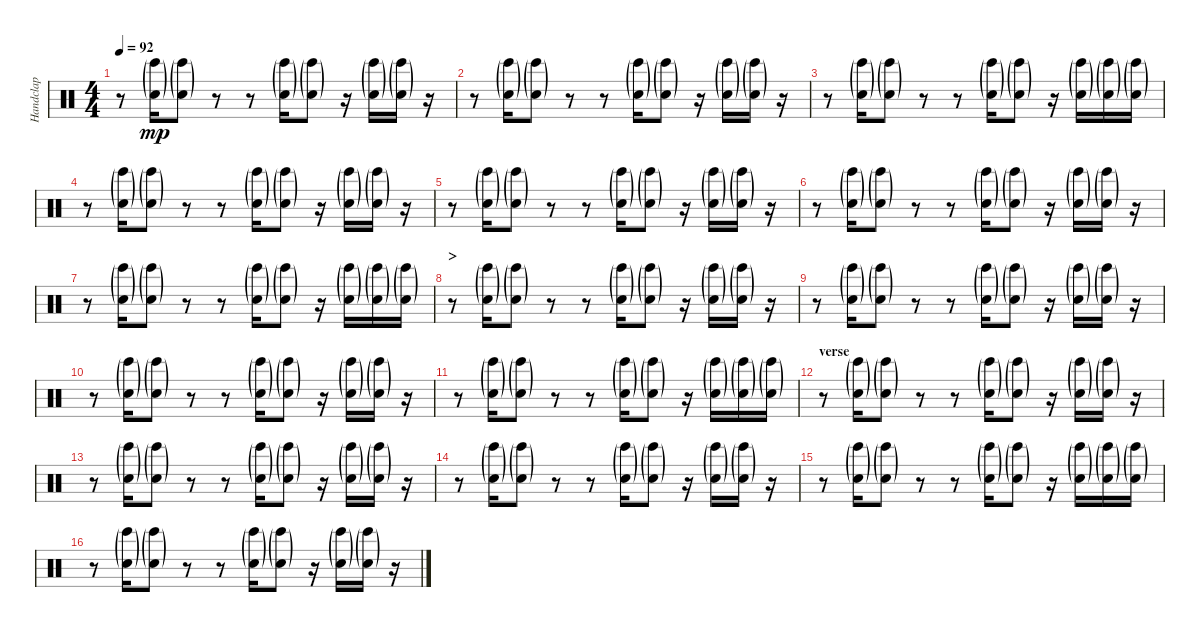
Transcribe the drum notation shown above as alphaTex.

\track ("Handclap" "Handclap") {instrument percussion}
\staff {score}
\articulation defaults
\ts (4 4)
\tempo 92
\clef neutral
\ks c
r.8{dy mp} ("Hand Clap (hit)"{g} "Bongo High (hit)"{g}).16 ("Hand Clap (hit)"{g} "Bongo High (hit)"{g}).8 r.8 r.8 ("Hand Clap (hit)"{g} "Bongo High (hit)"{g}).16 ("Hand Clap (hit)"{g} "Bongo High (hit)"{g}).8 r.16 ("Hand Clap (hit)"{g} "Bongo High (hit)"{g}).16 ("Hand Clap (hit)"{g} "Bongo High (hit)"{g}).16 r.16 |
r.8 ("Hand Clap (hit)"{g} "Bongo High (hit)"{g}).16 ("Hand Clap (hit)"{g} "Bongo High (hit)"{g}).8 r.8 r.8 ("Hand Clap (hit)"{g} "Bongo High (hit)"{g}).16 ("Hand Clap (hit)"{g} "Bongo High (hit)"{g}).8 r.16 ("Hand Clap (hit)"{g} "Bongo High (hit)"{g}).16 ("Hand Clap (hit)"{g} "Bongo High (hit)"{g}).16 r.16 |
r.8 ("Hand Clap (hit)"{g} "Bongo High (hit)"{g}).16 ("Hand Clap (hit)"{g} "Bongo High (hit)"{g}).8 r.8 r.8 ("Hand Clap (hit)"{g} "Bongo High (hit)"{g}).16 ("Hand Clap (hit)"{g} "Bongo High (hit)"{g}).8 r.16 ("Hand Clap (hit)"{g} "Bongo High (hit)"{g}).16 ("Hand Clap (hit)"{g} "Bongo High (hit)"{g}).16 ("Hand Clap (hit)"{g} "Bongo High (hit)"{g}).16 |
r.8 ("Hand Clap (hit)"{g} "Bongo High (hit)"{g}).16 ("Hand Clap (hit)"{g} "Bongo High (hit)"{g}).8 r.8 r.8 ("Hand Clap (hit)"{g} "Bongo High (hit)"{g}).16 ("Hand Clap (hit)"{g} "Bongo High (hit)"{g}).8 r.16 ("Hand Clap (hit)"{g} "Bongo High (hit)"{g}).16 ("Hand Clap (hit)"{g} "Bongo High (hit)"{g}).16 r.16 |
r.8 ("Hand Clap (hit)"{g} "Bongo High (hit)"{g}).16 ("Hand Clap (hit)"{g} "Bongo High (hit)"{g}).8 r.8 r.8 ("Hand Clap (hit)"{g} "Bongo High (hit)"{g}).16 ("Hand Clap (hit)"{g} "Bongo High (hit)"{g}).8 r.16 ("Hand Clap (hit)"{g} "Bongo High (hit)"{g}).16 ("Hand Clap (hit)"{g} "Bongo High (hit)"{g}).16 r.16 |
r.8 ("Hand Clap (hit)"{g} "Bongo High (hit)"{g}).16 ("Hand Clap (hit)"{g} "Bongo High (hit)"{g}).8 r.8 r.8 ("Hand Clap (hit)"{g} "Bongo High (hit)"{g}).16 ("Hand Clap (hit)"{g} "Bongo High (hit)"{g}).8 r.16 ("Hand Clap (hit)"{g} "Bongo High (hit)"{g}).16 ("Hand Clap (hit)"{g} "Bongo High (hit)"{g}).16 r.16 |
r.8 ("Hand Clap (hit)"{g} "Bongo High (hit)"{g}).16 ("Hand Clap (hit)"{g} "Bongo High (hit)"{g}).8 r.8 r.8 ("Hand Clap (hit)"{g} "Bongo High (hit)"{g}).16 ("Hand Clap (hit)"{g} "Bongo High (hit)"{g}).8 r.16 ("Hand Clap (hit)"{g} "Bongo High (hit)"{g}).16 ("Hand Clap (hit)"{g} "Bongo High (hit)"{g}).16 ("Hand Clap (hit)"{g} "Bongo High (hit)"{g}).16 |
\section ("" ">")
r.8 ("Hand Clap (hit)"{g} "Bongo High (hit)"{g}).16 ("Hand Clap (hit)"{g} "Bongo High (hit)"{g}).8 r.8 r.8 ("Hand Clap (hit)"{g} "Bongo High (hit)"{g}).16 ("Hand Clap (hit)"{g} "Bongo High (hit)"{g}).8 r.16 ("Hand Clap (hit)"{g} "Bongo High (hit)"{g}).16 ("Hand Clap (hit)"{g} "Bongo High (hit)"{g}).16 r.16 |
r.8 ("Hand Clap (hit)"{g} "Bongo High (hit)"{g}).16 ("Hand Clap (hit)"{g} "Bongo High (hit)"{g}).8 r.8 r.8 ("Hand Clap (hit)"{g} "Bongo High (hit)"{g}).16 ("Hand Clap (hit)"{g} "Bongo High (hit)"{g}).8 r.16 ("Hand Clap (hit)"{g} "Bongo High (hit)"{g}).16 ("Hand Clap (hit)"{g} "Bongo High (hit)"{g}).16 r.16 |
r.8 ("Hand Clap (hit)"{g} "Bongo High (hit)"{g}).16 ("Hand Clap (hit)"{g} "Bongo High (hit)"{g}).8 r.8 r.8 ("Hand Clap (hit)"{g} "Bongo High (hit)"{g}).16 ("Hand Clap (hit)"{g} "Bongo High (hit)"{g}).8 r.16 ("Hand Clap (hit)"{g} "Bongo High (hit)"{g}).16 ("Hand Clap (hit)"{g} "Bongo High (hit)"{g}).16 r.16 |
r.8 ("Hand Clap (hit)"{g} "Bongo High (hit)"{g}).16 ("Hand Clap (hit)"{g} "Bongo High (hit)"{g}).8 r.8 r.8 ("Hand Clap (hit)"{g} "Bongo High (hit)"{g}).16 ("Hand Clap (hit)"{g} "Bongo High (hit)"{g}).8 r.16 ("Hand Clap (hit)"{g} "Bongo High (hit)"{g}).16 ("Hand Clap (hit)"{g} "Bongo High (hit)"{g}).16 ("Hand Clap (hit)"{g} "Bongo High (hit)"{g}).16 |
\section ("" "verse")
r.8 ("Hand Clap (hit)"{g} "Bongo High (hit)"{g}).16 ("Hand Clap (hit)"{g} "Bongo High (hit)"{g}).8 r.8 r.8 ("Hand Clap (hit)"{g} "Bongo High (hit)"{g}).16 ("Hand Clap (hit)"{g} "Bongo High (hit)"{g}).8 r.16 ("Hand Clap (hit)"{g} "Bongo High (hit)"{g}).16 ("Hand Clap (hit)"{g} "Bongo High (hit)"{g}).16 r.16 |
r.8 ("Hand Clap (hit)"{g} "Bongo High (hit)"{g}).16 ("Hand Clap (hit)"{g} "Bongo High (hit)"{g}).8 r.8 r.8 ("Hand Clap (hit)"{g} "Bongo High (hit)"{g}).16 ("Hand Clap (hit)"{g} "Bongo High (hit)"{g}).8 r.16 ("Hand Clap (hit)"{g} "Bongo High (hit)"{g}).16 ("Hand Clap (hit)"{g} "Bongo High (hit)"{g}).16 r.16 |
r.8 ("Hand Clap (hit)"{g} "Bongo High (hit)"{g}).16 ("Hand Clap (hit)"{g} "Bongo High (hit)"{g}).8 r.8 r.8 ("Hand Clap (hit)"{g} "Bongo High (hit)"{g}).16 ("Hand Clap (hit)"{g} "Bongo High (hit)"{g}).8 r.16 ("Hand Clap (hit)"{g} "Bongo High (hit)"{g}).16 ("Hand Clap (hit)"{g} "Bongo High (hit)"{g}).16 r.16 |
r.8 ("Hand Clap (hit)"{g} "Bongo High (hit)"{g}).16 ("Hand Clap (hit)"{g} "Bongo High (hit)"{g}).8 r.8 r.8 ("Hand Clap (hit)"{g} "Bongo High (hit)"{g}).16 ("Hand Clap (hit)"{g} "Bongo High (hit)"{g}).8 r.16 ("Hand Clap (hit)"{g} "Bongo High (hit)"{g}).16 ("Hand Clap (hit)"{g} "Bongo High (hit)"{g}).16 ("Hand Clap (hit)"{g} "Bongo High (hit)"{g}).16 |
r.8 ("Hand Clap (hit)"{g} "Bongo High (hit)"{g}).16 ("Hand Clap (hit)"{g} "Bongo High (hit)"{g}).8 r.8 r.8 ("Hand Clap (hit)"{g} "Bongo High (hit)"{g}).16 ("Hand Clap (hit)"{g} "Bongo High (hit)"{g}).8 r.16 ("Hand Clap (hit)"{g} "Bongo High (hit)"{g}).16 ("Hand Clap (hit)"{g} "Bongo High (hit)"{g}).16 r.16
